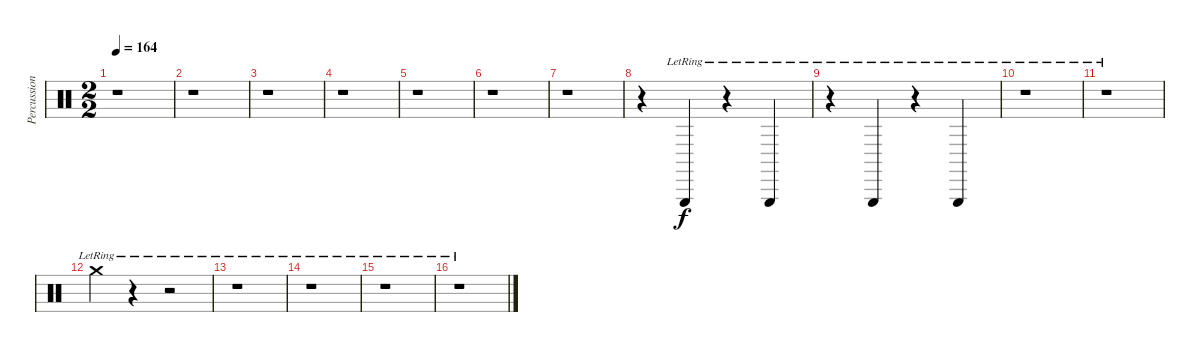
\track ("Percussion" "Percussion") {instrument percussion}
\staff {score}
\articulation defaults
\ts (2 2)
\tempo 164
\clef neutral
\ks c
r.1{dy f} |
r.1 |
r.1 |
r.1 |
r.1 |
r.1 |
r.1 |
r.4 "Triangle (hit)"{lr}.4 r.4 "Triangle (hit)"{lr}.4 |
r.4 "Triangle (hit)"{lr}.4 r.4 "Triangle (hit)"{lr}.4 |
r.1 |
r.1 |
"Crash medium (hit)"{lr}.4 r.4 r.2 |
r.1 |
r.1 |
r.1 |
r.1
